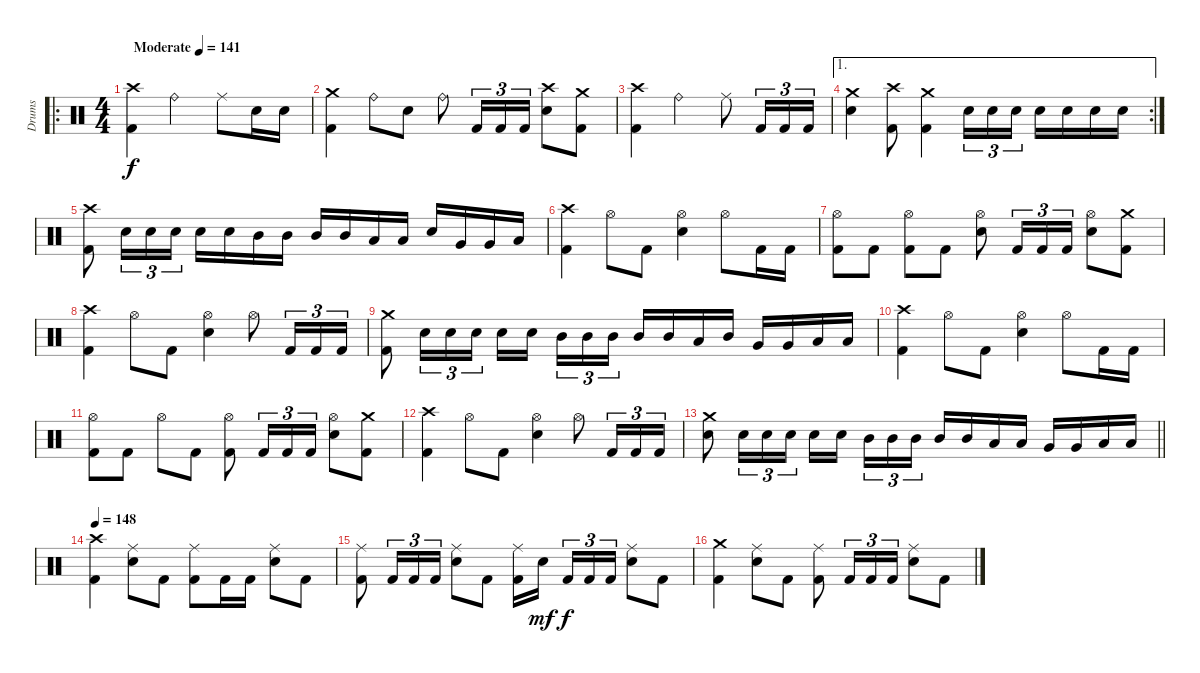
\track ("Drums" "Drums") {instrument percussion}
\staff {score}
\articulation defaults
\ro
\ts (4 4)
\tempo (141 "Moderate")
\clef neutral
\ks c
("Crash high (hit)" "Kick (hit) 2").4{dy f} "Ride (bell)".2 "Ride (middle)".8 "Electric Snare (hit)".16 "Electric Snare (hit)".16 |
("Crash medium (hit)" "Kick (hit) 2").4 "Ride (bell)".8 "Electric Snare (hit)".8 "Ride (bell)".8 "Kick (hit) 2".16{tu (3 2)} "Kick (hit) 2".16{tu (3 2)} "Kick (hit) 2".16{tu (3 2)} ("Crash high (hit)" "Electric Snare (hit)").8 ("Crash medium (hit)" "Kick (hit) 2").8 |
("Crash high (hit)" "Kick (hit) 2").4 "Ride (bell)".2 "Ride (middle)".8 "Kick (hit) 2".16{tu (3 2)} "Kick (hit) 2".16{tu (3 2)} "Kick (hit) 2".16{tu (3 2)} |
\ae 1
\rc 2
("Crash medium (hit)" "Electric Snare (hit)").4 ("Crash high (hit)" "Kick (hit) 2").8 ("Crash medium (hit)" "Kick (hit) 2").4 "Electric Snare (hit)".16{tu (3 2)} "Electric Snare (hit)".16{tu (3 2)} "Electric Snare (hit)".16{tu (3 2)} "Electric Snare (hit)".16 "Electric Snare (hit)".16 "Electric Snare (hit)".16 "Electric Snare (hit)".16 |
("Crash high (hit)" "Kick (hit) 2").8 "Electric Snare (hit)".16{tu (3 2)} "Electric Snare (hit)".16{tu (3 2)} "Electric Snare (hit)".16{tu (3 2)} "Electric Snare (hit)".16 "Electric Snare (hit)".16 "Mid Tom (hit)".16 "Mid Tom (hit)".16 "Mid Tom (hit)".16 "Mid Tom (hit)".16 "Low Tom (hit)".16 "Low Tom (hit)".16 "Electric Snare (hit)".16 "Very Low Tom (hit)".16 "Very Low Tom (hit)".16 "Low Floor Tom (hit)".16 |
("Crash high (hit)" "Kick (hit) 2").4 "Hi-Hat (open)".8 "Kick (hit) 2".8 ("Hi-Hat (open)" "Electric Snare (hit)").4 "Hi-Hat (open)".8 "Kick (hit) 2".16 "Kick (hit) 2".16 |
("Hi-Hat (open)" "Kick (hit) 2").8 "Kick (hit) 2".8 ("Hi-Hat (open)" "Kick (hit) 2").8 "Kick (hit) 2".8 ("Hi-Hat (open)" "Electric Snare (hit)").8 "Kick (hit) 2".16{tu (3 2)} "Kick (hit) 2".16{tu (3 2)} "Kick (hit) 2".16{tu (3 2)} ("Hi-Hat (open)" "Electric Snare (hit)").8 ("Crash medium (hit)" "Kick (hit) 2").8 |
("Crash high (hit)" "Kick (hit) 2").4 "Hi-Hat (open)".8 "Kick (hit) 2".8 ("Hi-Hat (open)" "Electric Snare (hit)").4 "Hi-Hat (open)".8 "Kick (hit) 2".16{tu (3 2)} "Kick (hit) 2".16{tu (3 2)} "Kick (hit) 2".16{tu (3 2)} |
("Crash medium (hit)" "Kick (hit) 2").8 "Electric Snare (hit)".16{tu (3 2)} "Electric Snare (hit)".16{tu (3 2)} "Electric Snare (hit)".16{tu (3 2)} "Electric Snare (hit)".16 "Electric Snare (hit)".16{beam splitsecondary} "Mid Tom (hit)".16{tu (3 2)} "Mid Tom (hit)".16{tu (3 2)} "Mid Tom (hit)".16{tu (3 2)} "Mid Tom (hit)".16 "Mid Tom (hit)".16 "Low Tom (hit)".16 "Mid Tom (hit)".16 "Very Low Tom (hit)".16 "Very Low Tom (hit)".16 "Low Floor Tom (hit)".16 "Low Floor Tom (hit)".16 |
("Crash high (hit)" "Kick (hit) 2").4 "Hi-Hat (open)".8 "Kick (hit) 2".8 ("Hi-Hat (open)" "Electric Snare (hit)").4 "Hi-Hat (open)".8 "Kick (hit) 2".16 "Kick (hit) 2".16 |
("Hi-Hat (open)" "Kick (hit) 2").8 "Kick (hit) 2".8 "Hi-Hat (open)".8 "Kick (hit) 2".8 ("Hi-Hat (open)" "Kick (hit) 2").8 "Kick (hit) 2".16{tu (3 2)} "Kick (hit) 2".16{tu (3 2)} "Kick (hit) 2".16{tu (3 2)} ("Hi-Hat (open)" "Electric Snare (hit)").8 ("Crash medium (hit)" "Kick (hit) 2").8 |
("Crash high (hit)" "Kick (hit) 2").4 "Hi-Hat (open)".8 "Kick (hit) 2".8 ("Hi-Hat (open)" "Electric Snare (hit)").4 "Hi-Hat (open)".8 "Kick (hit) 2".16{tu (3 2)} "Kick (hit) 2".16{tu (3 2)} "Kick (hit) 2".16{tu (3 2)} |
\barLineRight lightlight
("Crash medium (hit)" "Electric Snare (hit)").8 "Electric Snare (hit)".16{tu (3 2)} "Electric Snare (hit)".16{tu (3 2)} "Electric Snare (hit)".16{tu (3 2)} "Electric Snare (hit)".16 "Electric Snare (hit)".16{beam splitsecondary} "Mid Tom (hit)".16{tu (3 2)} "Mid Tom (hit)".16{tu (3 2)} "Mid Tom (hit)".16{tu (3 2)} "Mid Tom (hit)".16 "Mid Tom (hit)".16 "Low Tom (hit)".16 "Low Tom (hit)".16 "Very Low Tom (hit)".16 "Very Low Tom (hit)".16 "Low Floor Tom (hit)".16 "Low Floor Tom (hit)".16 |
\section ("" "")
\tempo 148
("Crash high (hit)" "Kick (hit) 2").4 ("Ride (middle)" "Electric Snare (hit)").8 "Kick (hit) 2".8 ("Ride (middle)" "Kick (hit) 2").8 "Kick (hit) 2".16 "Kick (hit) 2".16 ("Ride (middle)" "Electric Snare (hit)").8 "Kick (hit) 2".8 |
("Ride (middle)" "Kick (hit) 2").8 "Kick (hit) 2".16{tu (3 2)} "Kick (hit) 2".16{tu (3 2)} "Kick (hit) 2".16{tu (3 2)} ("Ride (middle)" "Electric Snare (hit)").8 "Kick (hit) 2".8 ("Ride (middle)" "Kick (hit) 2").16 "Electric Snare (hit)".16{dy mf beam splitsecondary} "Kick (hit) 2".16{tu (3 2) dy f} "Kick (hit) 2".16{tu (3 2)} "Kick (hit) 2".16{tu (3 2)} ("Ride (middle)" "Electric Snare (hit)").8 "Kick (hit) 2".8 |
("Crash medium (hit)" "Kick (hit) 2").4 ("Ride (middle)" "Electric Snare (hit)").8 "Kick (hit) 2".8 ("Ride (middle)" "Kick (hit) 2").8 "Kick (hit) 2".16{tu (3 2)} "Kick (hit) 2".16{tu (3 2)} "Kick (hit) 2".16{tu (3 2)} ("Ride (middle)" "Electric Snare (hit)").8 "Kick (hit) 2".8
